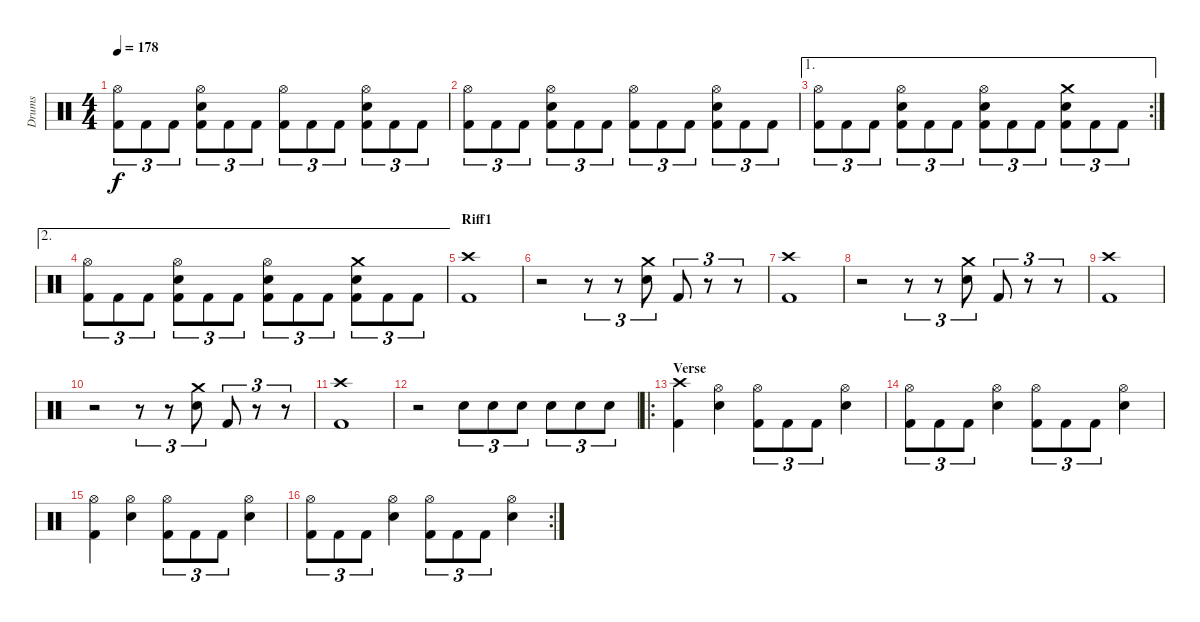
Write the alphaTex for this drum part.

\track ("Drums" "Drums") {instrument percussion}
\staff {score}
\articulation defaults
\ts (4 4)
\tempo 178
\clef neutral
\ks c
("Hi-Hat (open)" "Kick (hit) 2").8{tu (3 2) dy f} "Kick (hit) 2".8{tu (3 2)} "Kick (hit) 2".8{tu (3 2)} ("Hi-Hat (open)" "Electric Snare (hit)" "Kick (hit) 2").8{tu (3 2)} "Kick (hit) 2".8{tu (3 2)} "Kick (hit) 2".8{tu (3 2)} ("Hi-Hat (open)" "Kick (hit) 2").8{tu (3 2)} "Kick (hit) 2".8{tu (3 2)} "Kick (hit) 2".8{tu (3 2)} ("Hi-Hat (open)" "Electric Snare (hit)" "Kick (hit) 2").8{tu (3 2)} "Kick (hit) 2".8{tu (3 2)} "Kick (hit) 2".8{tu (3 2)} |
("Hi-Hat (open)" "Kick (hit) 2").8{tu (3 2)} "Kick (hit) 2".8{tu (3 2)} "Kick (hit) 2".8{tu (3 2)} ("Hi-Hat (open)" "Electric Snare (hit)" "Kick (hit) 2").8{tu (3 2)} "Kick (hit) 2".8{tu (3 2)} "Kick (hit) 2".8{tu (3 2)} ("Hi-Hat (open)" "Kick (hit) 2").8{tu (3 2)} "Kick (hit) 2".8{tu (3 2)} "Kick (hit) 2".8{tu (3 2)} ("Hi-Hat (open)" "Electric Snare (hit)" "Kick (hit) 2").8{tu (3 2)} "Kick (hit) 2".8{tu (3 2)} "Kick (hit) 2".8{tu (3 2)} |
\ae 1
\rc 2
("Hi-Hat (open)" "Kick (hit) 2").8{tu (3 2)} "Kick (hit) 2".8{tu (3 2)} "Kick (hit) 2".8{tu (3 2)} ("Hi-Hat (open)" "Electric Snare (hit)" "Kick (hit) 2").8{tu (3 2)} "Kick (hit) 2".8{tu (3 2)} "Kick (hit) 2".8{tu (3 2)} ("Hi-Hat (open)" "Electric Snare (hit)" "Kick (hit) 2").8{tu (3 2)} "Kick (hit) 2".8{tu (3 2)} "Kick (hit) 2".8{tu (3 2)} ("Crash medium (hit)" "Electric Snare (hit)" "Kick (hit) 2").8{tu (3 2)} "Kick (hit) 2".8{tu (3 2)} "Kick (hit) 2".8{tu (3 2)} |
\ae 2
("Hi-Hat (open)" "Kick (hit) 2").8{tu (3 2)} "Kick (hit) 2".8{tu (3 2)} "Kick (hit) 2".8{tu (3 2)} ("Hi-Hat (open)" "Electric Snare (hit)" "Kick (hit) 2").8{tu (3 2)} "Kick (hit) 2".8{tu (3 2)} "Kick (hit) 2".8{tu (3 2)} ("Hi-Hat (open)" "Electric Snare (hit)" "Kick (hit) 2").8{tu (3 2)} "Kick (hit) 2".8{tu (3 2)} "Kick (hit) 2".8{tu (3 2)} ("Crash medium (hit)" "Electric Snare (hit)" "Kick (hit) 2").8{tu (3 2)} "Kick (hit) 2".8{tu (3 2)} "Kick (hit) 2".8{tu (3 2)} |
\section ("" "Riff1")
("Crash high (hit)" "Kick (hit) 2").1 |
r.2 r.8{tu (3 2)} r.8{tu (3 2)} ("Crash medium (hit)" "Electric Snare (hit)").8{tu (3 2)} "Kick (hit) 2".8{tu (3 2)} r.8{tu (3 2)} r.8{tu (3 2)} |
("Crash high (hit)" "Kick (hit) 2").1 |
r.2 r.8{tu (3 2)} r.8{tu (3 2)} ("Crash medium (hit)" "Electric Snare (hit)").8{tu (3 2)} "Kick (hit) 2".8{tu (3 2)} r.8{tu (3 2)} r.8{tu (3 2)} |
("Crash high (hit)" "Kick (hit) 2").1 |
r.2 r.8{tu (3 2)} r.8{tu (3 2)} ("Crash medium (hit)" "Electric Snare (hit)").8{tu (3 2)} "Kick (hit) 2".8{tu (3 2)} r.8{tu (3 2)} r.8{tu (3 2)} |
("Crash high (hit)" "Kick (hit) 2").1 |
r.2 "Electric Snare (hit)".8{tu (3 2)} "Electric Snare (hit)".8{tu (3 2)} "Electric Snare (hit)".8{tu (3 2)} "Electric Snare (hit)".8{tu (3 2)} "Electric Snare (hit)".8{tu (3 2)} "Electric Snare (hit)".8{tu (3 2)} |
\ro
\section ("" "Verse")
("Crash high (hit)" "Kick (hit) 2").4 ("Hi-Hat (open)" "Electric Snare (hit)").4 ("Hi-Hat (open)" "Kick (hit) 2").8{tu (3 2)} "Kick (hit) 2".8{tu (3 2)} "Kick (hit) 2".8{tu (3 2)} ("Hi-Hat (open)" "Electric Snare (hit)").4 |
("Hi-Hat (open)" "Kick (hit) 2").8{tu (3 2)} "Kick (hit) 2".8{tu (3 2)} "Kick (hit) 2".8{tu (3 2)} ("Hi-Hat (open)" "Electric Snare (hit)").4 ("Hi-Hat (open)" "Kick (hit) 2").8{tu (3 2)} "Kick (hit) 2".8{tu (3 2)} "Kick (hit) 2".8{tu (3 2)} ("Hi-Hat (open)" "Electric Snare (hit)").4 |
("Hi-Hat (open)" "Kick (hit) 2").4 ("Hi-Hat (open)" "Electric Snare (hit)").4 ("Hi-Hat (open)" "Kick (hit) 2").8{tu (3 2)} "Kick (hit) 2".8{tu (3 2)} "Kick (hit) 2".8{tu (3 2)} ("Hi-Hat (open)" "Electric Snare (hit)").4 |
\rc 2
("Hi-Hat (open)" "Kick (hit) 2").8{tu (3 2)} "Kick (hit) 2".8{tu (3 2)} "Kick (hit) 2".8{tu (3 2)} ("Hi-Hat (open)" "Electric Snare (hit)").4 ("Hi-Hat (open)" "Kick (hit) 2").8{tu (3 2)} "Kick (hit) 2".8{tu (3 2)} "Kick (hit) 2".8{tu (3 2)} ("Hi-Hat (open)" "Electric Snare (hit)").4
